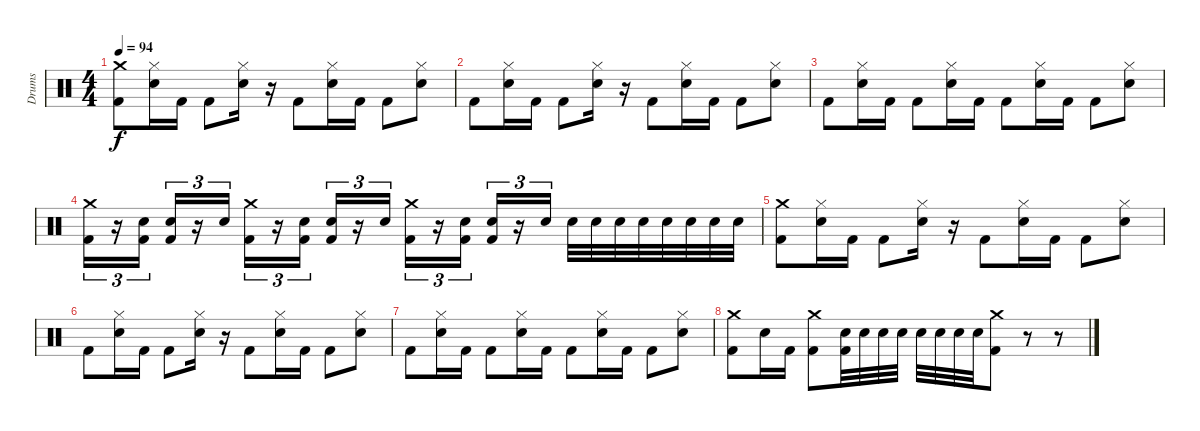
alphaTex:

\track ("Drums" "Drums") {instrument percussion}
\staff {score}
\articulation defaults
\ts (4 4)
\tempo 94
\clef neutral
\ks c
("Crash medium (hit)" "Kick (hit) 2").8{dy f} ("Hi-Hat (closed)" "Electric Snare (hit)").16 "Kick (hit) 2".16 "Kick (hit) 2".8 ("Hi-Hat (closed)" "Electric Snare (hit)").16 r.16 "Kick (hit) 2".8 ("Hi-Hat (closed)" "Electric Snare (hit)").16 "Kick (hit) 2".16 "Kick (hit) 2".8 ("Hi-Hat (closed)" "Electric Snare (hit)").8 |
"Kick (hit) 2".8 ("Hi-Hat (closed)" "Electric Snare (hit)").16 "Kick (hit) 2".16 "Kick (hit) 2".8 ("Hi-Hat (closed)" "Electric Snare (hit)").16 r.16 "Kick (hit) 2".8 ("Hi-Hat (closed)" "Electric Snare (hit)").16 "Kick (hit) 2".16 "Kick (hit) 2".8 ("Hi-Hat (closed)" "Electric Snare (hit)").8 |
"Kick (hit) 2".8 ("Hi-Hat (closed)" "Electric Snare (hit)").16 "Kick (hit) 2".16 "Kick (hit) 2".8 ("Hi-Hat (closed)" "Electric Snare (hit)").16 "Kick (hit) 2".16 "Kick (hit) 2".8 ("Hi-Hat (closed)" "Electric Snare (hit)").16 "Kick (hit) 2".16 "Kick (hit) 2".8 ("Hi-Hat (closed)" "Electric Snare (hit)").8 |
("Crash medium (hit)" "Kick (hit) 2").16{tu (3 2)} r.16{tu (3 2)} ("Electric Snare (hit)" "Kick (hit) 2").16{tu (3 2)} ("Electric Snare (hit)" "Kick (hit) 2").16{tu (3 2)} r.16{tu (3 2)} "Electric Snare (hit)".16{tu (3 2)} ("Crash medium (hit)" "Kick (hit) 2").16{tu (3 2)} r.16{tu (3 2)} ("Electric Snare (hit)" "Kick (hit) 2").16{tu (3 2)} ("Electric Snare (hit)" "Kick (hit) 2").16{tu (3 2)} r.16{tu (3 2)} "Electric Snare (hit)".16{tu (3 2)} ("Crash medium (hit)" "Kick (hit) 2").16{tu (3 2)} r.16{tu (3 2)} ("Electric Snare (hit)" "Kick (hit) 2").16{tu (3 2)} ("Electric Snare (hit)" "Kick (hit) 2").16{tu (3 2)} r.16{tu (3 2)} "Electric Snare (hit)".16{tu (3 2)} "Electric Snare (hit)".32 "Electric Snare (hit)".32 "Electric Snare (hit)".32 "Electric Snare (hit)".32 "Electric Snare (hit)".32 "Electric Snare (hit)".32 "Electric Snare (hit)".32 "Electric Snare (hit)".32 |
("Crash medium (hit)" "Kick (hit) 2").8 ("Hi-Hat (closed)" "Electric Snare (hit)").16 "Kick (hit) 2".16 "Kick (hit) 2".8 ("Hi-Hat (closed)" "Electric Snare (hit)").16 r.16 "Kick (hit) 2".8 ("Hi-Hat (closed)" "Electric Snare (hit)").16 "Kick (hit) 2".16 "Kick (hit) 2".8 ("Hi-Hat (closed)" "Electric Snare (hit)").8 |
"Kick (hit) 2".8 ("Hi-Hat (closed)" "Electric Snare (hit)").16 "Kick (hit) 2".16 "Kick (hit) 2".8 ("Hi-Hat (closed)" "Electric Snare (hit)").16 r.16 "Kick (hit) 2".8 ("Hi-Hat (closed)" "Electric Snare (hit)").16 "Kick (hit) 2".16 "Kick (hit) 2".8 ("Hi-Hat (closed)" "Electric Snare (hit)").8 |
"Kick (hit) 2".8 ("Hi-Hat (closed)" "Electric Snare (hit)").16 "Kick (hit) 2".16 "Kick (hit) 2".8 ("Hi-Hat (closed)" "Electric Snare (hit)").16 "Kick (hit) 2".16 "Kick (hit) 2".8 ("Hi-Hat (closed)" "Electric Snare (hit)").16 "Kick (hit) 2".16 "Kick (hit) 2".8 ("Hi-Hat (closed)" "Electric Snare (hit)").8 |
("Crash medium (hit)" "Kick (hit) 2").8 "Electric Snare (hit)".16 "Kick (hit) 2".16 ("Crash medium (hit)" "Kick (hit) 2").8 ("Electric Snare (hit)" "Kick (hit) 2").32 "Electric Snare (hit)".32 "Electric Snare (hit)".32 "Electric Snare (hit)".32 "Electric Snare (hit)".32 "Electric Snare (hit)".32 "Electric Snare (hit)".32 "Electric Snare (hit)".32 ("Crash medium (hit)" "Kick (hit) 2").8 r.8 r.8
